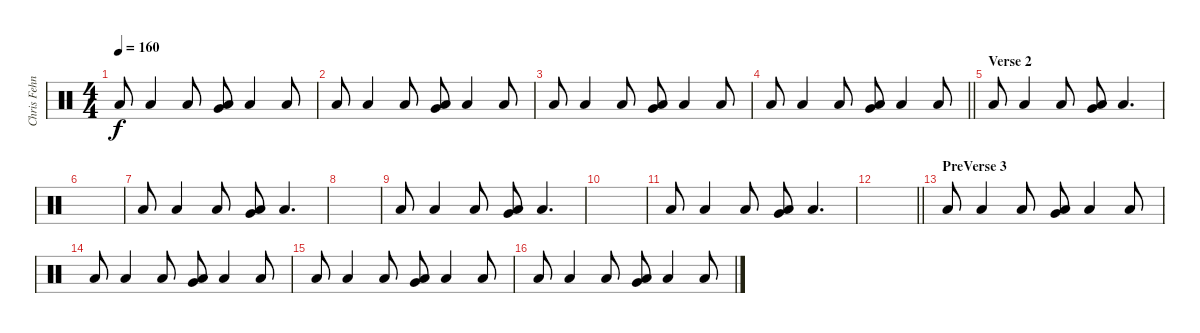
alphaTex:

\track ("Chris Fehn" "Chris Fehn") {instrument percussion}
\staff {score}
\articulation defaults
\ts (4 4)
\tempo 160
\clef neutral
\ks c "Low Floor Tom (hit)".8{dy f} "Low Floor Tom (hit)".4 "Low Floor Tom (hit)".8
("Very Low Tom (hit)" "Low Floor Tom (hit)").8 "Low Floor Tom (hit)".4 "Low Floor Tom (hit)".8 |
"Low Floor Tom (hit)".8 "Low Floor Tom (hit)".4 "Low Floor Tom (hit)".8 ("Very Low Tom (hit)" "Low Floor Tom (hit)").8 "Low Floor Tom (hit)".4 "Low Floor Tom (hit)".8 |
"Low Floor Tom (hit)".8 "Low Floor Tom (hit)".4 "Low Floor Tom (hit)".8 ("Very Low Tom (hit)" "Low Floor Tom (hit)").8 "Low Floor Tom (hit)".4 "Low Floor Tom (hit)".8 |
\barLineRight lightlight "Low Floor Tom (hit)".8 "Low Floor Tom (hit)".4 "Low Floor Tom (hit)".8
("Very Low Tom (hit)" "Low Floor Tom (hit)").8 "Low Floor Tom (hit)".4 "Low Floor Tom (hit)".8 |
\section ("" "Verse 2")
"Low Floor Tom (hit)".8 "Low Floor Tom (hit)".4 "Low Floor Tom (hit)".8 ("Very Low Tom (hit)" "Low Floor Tom (hit)").8 "Low Floor Tom (hit)".4{d} |
|
"Low Floor Tom (hit)".8 "Low Floor Tom (hit)".4 "Low Floor Tom (hit)".8 ("Very Low Tom (hit)" "Low Floor Tom (hit)").8 "Low Floor Tom (hit)".4{d} |
|
"Low Floor Tom (hit)".8 "Low Floor Tom (hit)".4 "Low Floor Tom (hit)".8 ("Very Low Tom (hit)" "Low Floor Tom (hit)").8 "Low Floor Tom (hit)".4{d} |
|
"Low Floor Tom (hit)".8 "Low Floor Tom (hit)".4 "Low Floor Tom (hit)".8 ("Very Low Tom (hit)" "Low Floor Tom (hit)").8 "Low Floor Tom (hit)".4{d} |
\barLineRight lightlight
|
\section ("" "PreVerse 3")
"Low Floor Tom (hit)".8 "Low Floor Tom (hit)".4 "Low Floor Tom (hit)".8 ("Very Low Tom (hit)" "Low Floor Tom (hit)").8 "Low Floor Tom (hit)".4 "Low Floor Tom (hit)".8 |
"Low Floor Tom (hit)".8 "Low Floor Tom (hit)".4 "Low Floor Tom (hit)".8 ("Very Low Tom (hit)" "Low Floor Tom (hit)").8 "Low Floor Tom (hit)".4 "Low Floor Tom (hit)".8 |
"Low Floor Tom (hit)".8 "Low Floor Tom (hit)".4 "Low Floor Tom (hit)".8 ("Very Low Tom (hit)" "Low Floor Tom (hit)").8 "Low Floor Tom (hit)".4 "Low Floor Tom (hit)".8 |
"Low Floor Tom (hit)".8 "Low Floor Tom (hit)".4 "Low Floor Tom (hit)".8 ("Very Low Tom (hit)" "Low Floor Tom (hit)").8 "Low Floor Tom (hit)".4 "Low Floor Tom (hit)".8
